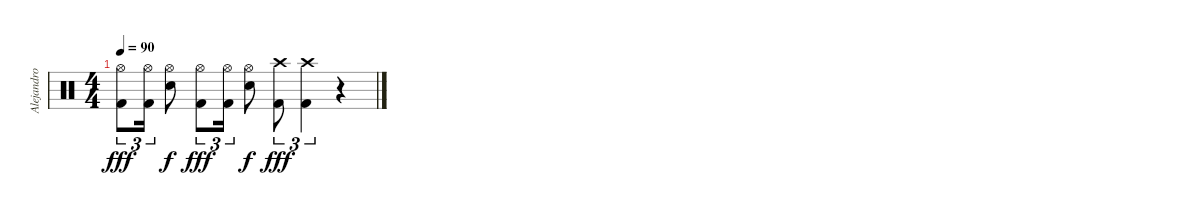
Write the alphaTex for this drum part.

\track ("Alejandro Gutiérrez" "Alejandro ") {instrument percussion}
\staff {score}
\articulation defaults
\ts (4 4)
\tempo 90
\clef neutral
\ks c
("Hi-Hat (open)" "Kick (hit) 2").8{tu (3 2) dy fff} ("Hi-Hat (open)" "Kick (hit) 2").16{tu (3 2)} ("Hi-Hat (open)" "Electric Snare (hit)").8{dy f} ("Hi-Hat (open)" "Kick (hit) 2").8{tu (3 2) dy fff} ("Hi-Hat (open)" "Kick (hit) 2").16{tu (3 2)} ("Hi-Hat (open)" "Electric Snare (hit)").8{dy f} ("Crash high (hit)" "Kick (hit) 2").8{tu (3 2) dy fff} ("Crash high (hit)" "Kick (hit) 2").4{tu (3 2)} r.4
